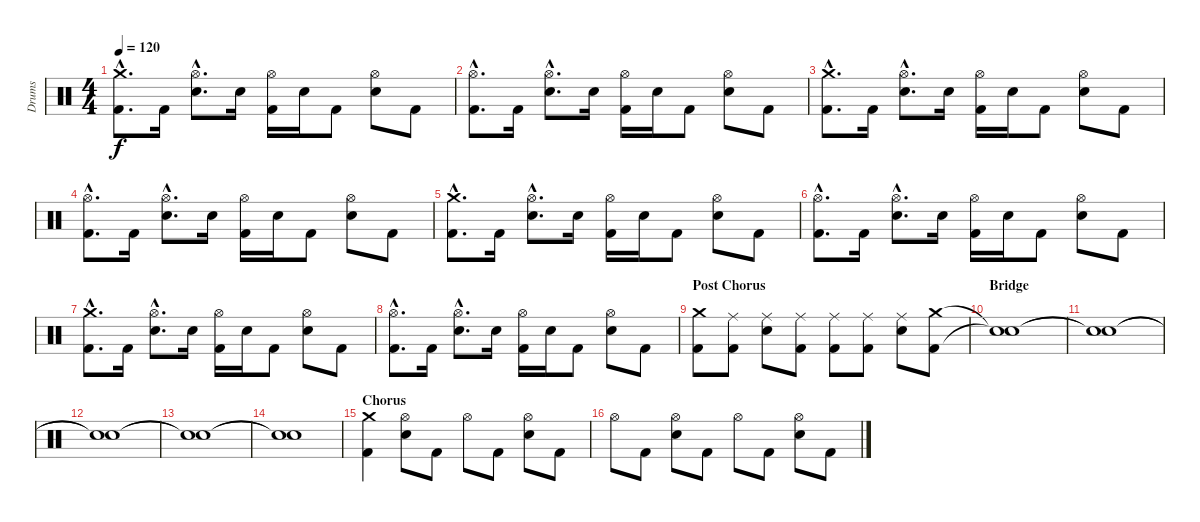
\track ("Drums" "Drums") {instrument percussion}
\staff {score}
\articulation defaults
\ts (4 4)
\tempo 120
\clef neutral
\ks c
("Crash medium (hit)"{hac} "Kick (hit) 2"{hac}).8{d dy f} "Kick (hit) 2".16 ("Hi-Hat (open)"{hac} "Electric Snare (hit)"{hac}).8{d} "Electric Snare (hit)".16 ("Hi-Hat (open)" "Kick (hit) 2").16 "Electric Snare (hit)".16 "Kick (hit) 2".8 ("Hi-Hat (open)" "Electric Snare (hit)").8 "Kick (hit) 2".8 |
("Hi-Hat (open)"{hac} "Kick (hit) 2"{hac}).8{d} "Kick (hit) 2".16 ("Hi-Hat (open)"{hac} "Electric Snare (hit)"{hac}).8{d} "Electric Snare (hit)".16 ("Hi-Hat (open)" "Kick (hit) 2").16 "Electric Snare (hit)".16 "Kick (hit) 2".8 ("Hi-Hat (open)" "Electric Snare (hit)").8 "Kick (hit) 2".8 |
("Crash medium (hit)"{hac} "Kick (hit) 2"{hac}).8{d} "Kick (hit) 2".16 ("Hi-Hat (open)"{hac} "Electric Snare (hit)"{hac}).8{d} "Electric Snare (hit)".16 ("Hi-Hat (open)" "Kick (hit) 2").16 "Electric Snare (hit)".16 "Kick (hit) 2".8 ("Hi-Hat (open)" "Electric Snare (hit)").8 "Kick (hit) 2".8 |
("Hi-Hat (open)"{hac} "Kick (hit) 2"{hac}).8{d} "Kick (hit) 2".16 ("Hi-Hat (open)"{hac} "Electric Snare (hit)"{hac}).8{d} "Electric Snare (hit)".16 ("Hi-Hat (open)" "Kick (hit) 2").16 "Electric Snare (hit)".16 "Kick (hit) 2".8 ("Hi-Hat (open)" "Electric Snare (hit)").8 "Kick (hit) 2".8 |
("Crash medium (hit)"{hac} "Kick (hit) 2"{hac}).8{d} "Kick (hit) 2".16 ("Hi-Hat (open)"{hac} "Electric Snare (hit)"{hac}).8{d} "Electric Snare (hit)".16 ("Hi-Hat (open)" "Kick (hit) 2").16 "Electric Snare (hit)".16 "Kick (hit) 2".8 ("Hi-Hat (open)" "Electric Snare (hit)").8 "Kick (hit) 2".8 |
("Hi-Hat (open)"{hac} "Kick (hit) 2"{hac}).8{d} "Kick (hit) 2".16 ("Hi-Hat (open)"{hac} "Electric Snare (hit)"{hac}).8{d} "Electric Snare (hit)".16 ("Hi-Hat (open)" "Kick (hit) 2").16 "Electric Snare (hit)".16 "Kick (hit) 2".8 ("Hi-Hat (open)" "Electric Snare (hit)").8 "Kick (hit) 2".8 |
("Crash medium (hit)"{hac} "Kick (hit) 2"{hac}).8{d} "Kick (hit) 2".16 ("Hi-Hat (open)"{hac} "Electric Snare (hit)"{hac}).8{d} "Electric Snare (hit)".16 ("Hi-Hat (open)" "Kick (hit) 2").16 "Electric Snare (hit)".16 "Kick (hit) 2".8 ("Hi-Hat (open)" "Electric Snare (hit)").8 "Kick (hit) 2".8 |
("Hi-Hat (open)"{hac} "Kick (hit) 2"{hac}).8{d} "Kick (hit) 2".16 ("Hi-Hat (open)"{hac} "Electric Snare (hit)"{hac}).8{d} "Electric Snare (hit)".16 ("Hi-Hat (open)" "Kick (hit) 2").16 "Electric Snare (hit)".16 "Kick (hit) 2".8 ("Hi-Hat (open)" "Electric Snare (hit)").8 "Kick (hit) 2".8 |
\section ("" "Post Chorus")
("Crash medium (hit)" "Kick (hit) 2").8 ("Ride (middle)" "Kick (hit) 2").8 ("Ride (middle)" "Electric Snare (hit)").8 ("Ride (middle)" "Kick (hit) 2").8 ("Ride (middle)" "Kick (hit) 2").8 ("Ride (middle)" "Kick (hit) 2").8 ("Ride (middle)" "Electric Snare (hit)").8 ("Crash medium (hit)" "Kick (hit) 2").8 |
\section ("" "Bridge")
("Snare (hit)"{t} "Snare (hit)"{t}).1 |
("Snare (hit)"{t} "Snare (hit)"{t}).1 |
("Snare (hit)"{t} "Snare (hit)"{t}).1 |
("Snare (hit)"{t} "Snare (hit)"{t}).1 |
("Snare (hit)"{t} "Snare (hit)"{t}).1 |
\section ("" "Chorus")
("Crash medium (hit)" "Kick (hit) 2").4 ("Hi-Hat (open)" "Electric Snare (hit)").8 "Kick (hit) 2".8 "Hi-Hat (open)".8 "Kick (hit) 2".8 ("Hi-Hat (open)" "Electric Snare (hit)").8 "Kick (hit) 2".8 |
"Hi-Hat (open)".8 "Kick (hit) 2".8 ("Hi-Hat (open)" "Electric Snare (hit)").8 "Kick (hit) 2".8 "Hi-Hat (open)".8 "Kick (hit) 2".8 ("Hi-Hat (open)" "Electric Snare (hit)").8 "Kick (hit) 2".8
